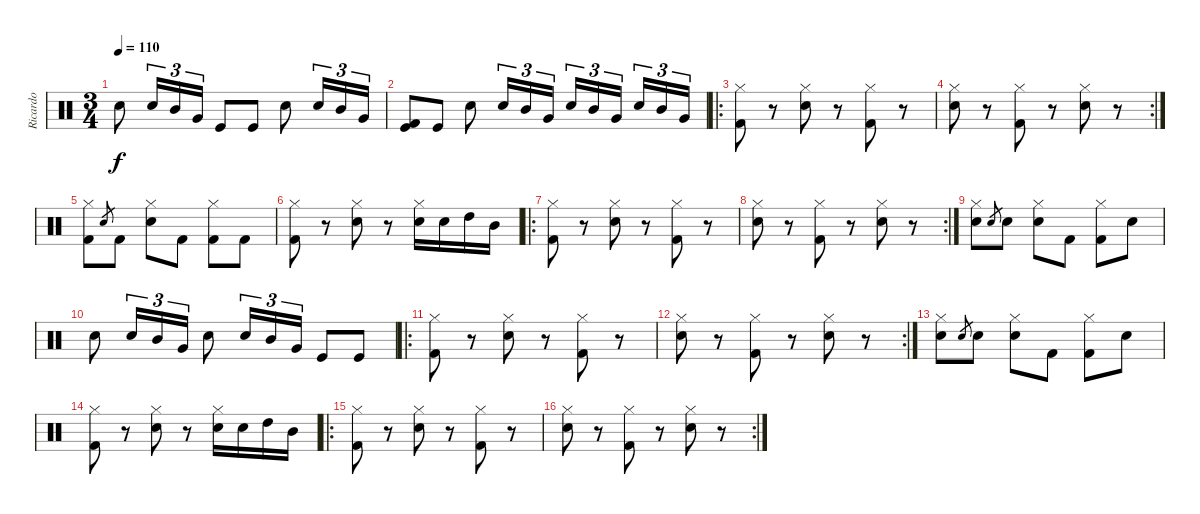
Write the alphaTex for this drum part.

\track ("Ricardo" "Ricardo") {instrument percussion}
\staff {score}
\articulation defaults
\ts (3 4)
\tempo 110
\clef neutral
\ks c "Snare (hit) 2".8{dy f} "Snare (hit) 2".16{tu (3 2)} "Mid Tom (hit)".16{tu (3 2)} "Very Low Tom (hit)".16{tu (3 2)} "Kick (hit)".8 "Kick (hit)".8 "Snare (hit) 2".8 "Snare (hit) 2".16{tu (3 2)} "Mid Tom (hit)".16{tu (3 2)} "Very Low Tom (hit)".16{tu (3 2)}
|
("Kick (hit) 2" "Kick (hit)").8 "Kick (hit)".8 "Snare (hit) 2".8 "Snare (hit) 2".16{tu (3 2)} "Mid Tom (hit)".16{tu (3 2)} "Very Low Tom (hit)".16{tu (3 2)} "Snare (hit) 2".16{tu (3 2)} "Mid Tom (hit)".16{tu (3 2)} "Very Low Tom (hit)".16{tu (3 2)} "Snare (hit) 2".16{tu (3 2)} "Mid Tom (hit)".16{tu (3 2)} "Very Low Tom (hit)".16{tu (3 2)} |
\ro
("Hi-Hat (closed)" "Kick (hit) 2").8 r.8 ("Hi-Hat (closed)" "Snare (hit) 2").8 r.8 ("Hi-Hat (closed)" "Kick (hit) 2").8 r.8 |
\rc 2
("Hi-Hat (closed)" "Snare (hit) 2").8 r.8 ("Hi-Hat (closed)" "Kick (hit) 2").8 r.8 ("Hi-Hat (closed)" "Snare (hit) 2").8 r.8 |
("Hi-Hat (closed)" "Kick (hit) 2").8 "Snare (hit) 2".8{gr} "Kick (hit) 2".8 ("Hi-Hat (closed)" "Snare (hit) 2").8 "Kick (hit) 2".8 ("Hi-Hat (closed)" "Kick (hit) 2").8 "Kick (hit) 2".8 |
("Hi-Hat (closed)" "Kick (hit) 2").8 r.8 ("Hi-Hat (closed)" "Snare (hit) 2").8 r.8 ("Hi-Hat (closed)" "Snare (hit) 2").16 "Snare (hit) 2".16 "High Tom (hit)".16 "Mid Tom (hit)".16 |
\ro
("Hi-Hat (closed)" "Kick (hit) 2").8 r.8 ("Hi-Hat (closed)" "Snare (hit) 2").8 r.8 ("Hi-Hat (closed)" "Kick (hit) 2").8 r.8 |
\rc 2
("Hi-Hat (closed)" "Snare (hit) 2").8 r.8 ("Hi-Hat (closed)" "Kick (hit) 2").8 r.8 ("Hi-Hat (closed)" "Snare (hit) 2").8 r.8 |
("Hi-Hat (closed)" "Snare (hit) 2").8 "Snare (hit) 2".8{gr} "Snare (hit) 2".8 ("Hi-Hat (closed)" "Snare (hit) 2").8 "Kick (hit) 2".8 ("Hi-Hat (closed)" "Kick (hit) 2").8 "Snare (hit) 2".8 |
"Snare (hit) 2".8 "Snare (hit) 2".16{tu (3 2)} "Mid Tom (hit)".16{tu (3 2)} "Very Low Tom (hit)".16{tu (3 2)} "Snare (hit) 2".8 "Snare (hit) 2".16{tu (3 2)} "Mid Tom (hit)".16{tu (3 2)} "Very Low Tom (hit)".16{tu (3 2)} "Kick (hit)".8 "Kick (hit)".8 |
\ro
("Hi-Hat (closed)" "Kick (hit) 2").8 r.8 ("Hi-Hat (closed)" "Snare (hit) 2").8 r.8 ("Hi-Hat (closed)" "Kick (hit) 2").8 r.8 |
\rc 2
("Hi-Hat (closed)" "Snare (hit) 2").8 r.8 ("Hi-Hat (closed)" "Kick (hit) 2").8 r.8 ("Hi-Hat (closed)" "Snare (hit) 2").8 r.8 |
("Hi-Hat (closed)" "Snare (hit) 2").8 "Snare (hit) 2".8{gr} "Snare (hit) 2".8 ("Hi-Hat (closed)" "Snare (hit) 2").8 "Kick (hit) 2".8 ("Hi-Hat (closed)" "Kick (hit) 2").8 "Snare (hit) 2".8 |
("Hi-Hat (closed)" "Kick (hit) 2").8 r.8 ("Hi-Hat (closed)" "Snare (hit) 2").8 r.8 ("Hi-Hat (closed)" "Snare (hit) 2").16 "Snare (hit) 2".16 "High Tom (hit)".16 "Mid Tom (hit)".16 |
\ro
("Hi-Hat (closed)" "Kick (hit) 2").8 r.8 ("Hi-Hat (closed)" "Snare (hit) 2").8 r.8 ("Hi-Hat (closed)" "Kick (hit) 2").8 r.8 |
\rc 2
("Hi-Hat (closed)" "Snare (hit) 2").8 r.8 ("Hi-Hat (closed)" "Kick (hit) 2").8 r.8 ("Hi-Hat (closed)" "Snare (hit) 2").8 r.8
